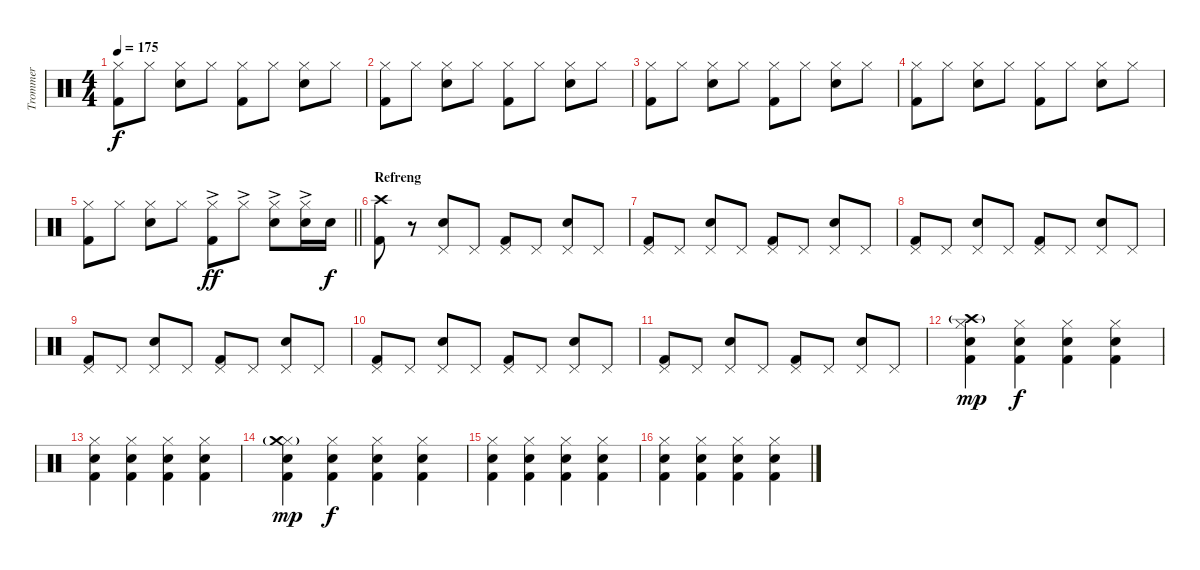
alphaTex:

\track ("Trommer" "Trommer") {instrument percussion}
\staff {score}
\articulation defaults
\ts (4 4)
\tempo 175
\clef neutral
\ks c
("Hi-Hat (closed)" "Kick (hit) 2").8{dy f} "Hi-Hat (closed)".8 ("Hi-Hat (closed)" "Electric Snare (hit)").8 "Hi-Hat (closed)".8 ("Hi-Hat (closed)" "Kick (hit) 2").8 "Hi-Hat (closed)".8 ("Hi-Hat (closed)" "Electric Snare (hit)").8 "Hi-Hat (closed)".8 |
("Hi-Hat (closed)" "Kick (hit) 2").8 "Hi-Hat (closed)".8 ("Hi-Hat (closed)" "Electric Snare (hit)").8 "Hi-Hat (closed)".8 ("Hi-Hat (closed)" "Kick (hit) 2").8 "Hi-Hat (closed)".8 ("Hi-Hat (closed)" "Electric Snare (hit)").8 "Hi-Hat (closed)".8 |
("Hi-Hat (closed)" "Kick (hit) 2").8 "Hi-Hat (closed)".8 ("Hi-Hat (closed)" "Electric Snare (hit)").8 "Hi-Hat (closed)".8 ("Hi-Hat (closed)" "Kick (hit) 2").8 "Hi-Hat (closed)".8 ("Hi-Hat (closed)" "Electric Snare (hit)").8 "Hi-Hat (closed)".8 |
("Hi-Hat (closed)" "Kick (hit) 2").8 "Hi-Hat (closed)".8 ("Hi-Hat (closed)" "Electric Snare (hit)").8 "Hi-Hat (closed)".8 ("Hi-Hat (closed)" "Kick (hit) 2").8 "Hi-Hat (closed)".8 ("Hi-Hat (closed)" "Electric Snare (hit)").8 "Hi-Hat (closed)".8 |
\barLineRight lightlight
("Hi-Hat (closed)" "Kick (hit) 2").8 "Hi-Hat (closed)".8 ("Hi-Hat (closed)" "Electric Snare (hit)").8 "Hi-Hat (closed)".8 ("Hi-Hat (closed)"{ac} "Kick (hit) 2").8{dy ff} "Hi-Hat (closed)"{ac}.8 ("Hi-Hat (closed)"{ac} "Electric Snare (hit)").8 ("Hi-Hat (closed)"{ac} "Electric Snare (hit)").16 "Electric Snare (hit)".16{dy f} |
\section ("" "Refreng")
("Crash high (hit)" "Kick (hit) 2").8 r.8 ("Pedal Hi-Hat (hit)" "Electric Snare (hit)").8 "Pedal Hi-Hat (hit)".8 ("Pedal Hi-Hat (hit)" "Kick (hit) 2").8 "Pedal Hi-Hat (hit)".8 ("Pedal Hi-Hat (hit)" "Electric Snare (hit)").8 "Pedal Hi-Hat (hit)".8 |
("Pedal Hi-Hat (hit)" "Kick (hit) 2").8 "Pedal Hi-Hat (hit)".8 ("Pedal Hi-Hat (hit)" "Electric Snare (hit)").8 "Pedal Hi-Hat (hit)".8 ("Pedal Hi-Hat (hit)" "Kick (hit) 2").8 "Pedal Hi-Hat (hit)".8 ("Pedal Hi-Hat (hit)" "Electric Snare (hit)").8 "Pedal Hi-Hat (hit)".8 |
("Pedal Hi-Hat (hit)" "Kick (hit) 2").8 "Pedal Hi-Hat (hit)".8 ("Pedal Hi-Hat (hit)" "Electric Snare (hit)").8 "Pedal Hi-Hat (hit)".8 ("Pedal Hi-Hat (hit)" "Kick (hit) 2").8 "Pedal Hi-Hat (hit)".8 ("Pedal Hi-Hat (hit)" "Electric Snare (hit)").8 "Pedal Hi-Hat (hit)".8 |
("Pedal Hi-Hat (hit)" "Kick (hit) 2").8 "Pedal Hi-Hat (hit)".8 ("Pedal Hi-Hat (hit)" "Electric Snare (hit)").8 "Pedal Hi-Hat (hit)".8 ("Pedal Hi-Hat (hit)" "Kick (hit) 2").8 "Pedal Hi-Hat (hit)".8 ("Pedal Hi-Hat (hit)" "Electric Snare (hit)").8 "Pedal Hi-Hat (hit)".8 |
("Pedal Hi-Hat (hit)" "Kick (hit) 2").8 "Pedal Hi-Hat (hit)".8 ("Pedal Hi-Hat (hit)" "Electric Snare (hit)").8 "Pedal Hi-Hat (hit)".8 ("Pedal Hi-Hat (hit)" "Kick (hit) 2").8 "Pedal Hi-Hat (hit)".8 ("Pedal Hi-Hat (hit)" "Electric Snare (hit)").8 "Pedal Hi-Hat (hit)".8 |
("Pedal Hi-Hat (hit)" "Kick (hit) 2").8 "Pedal Hi-Hat (hit)".8 ("Pedal Hi-Hat (hit)" "Electric Snare (hit)").8 "Pedal Hi-Hat (hit)".8 ("Pedal Hi-Hat (hit)" "Kick (hit) 2").8 "Pedal Hi-Hat (hit)".8 ("Pedal Hi-Hat (hit)" "Electric Snare (hit)").8 "Pedal Hi-Hat (hit)".8 |
("Hi-Hat (closed)" "Crash high (hit)"{g} "Electric Snare (hit)" "Kick (hit) 2").4{dy mp} ("Hi-Hat (closed)" "Electric Snare (hit)" "Kick (hit) 2").4{dy f} ("Hi-Hat (closed)" "Electric Snare (hit)" "Kick (hit) 2").4 ("Hi-Hat (closed)" "Electric Snare (hit)" "Kick (hit) 2").4 |
("Hi-Hat (closed)" "Electric Snare (hit)" "Kick (hit) 2").4 ("Hi-Hat (closed)" "Electric Snare (hit)" "Kick (hit) 2").4 ("Hi-Hat (closed)" "Electric Snare (hit)" "Kick (hit) 2").4 ("Hi-Hat (closed)" "Electric Snare (hit)" "Kick (hit) 2").4 |
("Hi-Hat (closed)" "Crash medium (hit)"{g} "Electric Snare (hit)" "Kick (hit) 2").4{dy mp} ("Hi-Hat (closed)" "Electric Snare (hit)" "Kick (hit) 2").4{dy f} ("Hi-Hat (closed)" "Electric Snare (hit)" "Kick (hit) 2").4 ("Hi-Hat (closed)" "Electric Snare (hit)" "Kick (hit) 2").4 |
("Hi-Hat (closed)" "Electric Snare (hit)" "Kick (hit) 2").4 ("Hi-Hat (closed)" "Electric Snare (hit)" "Kick (hit) 2").4 ("Hi-Hat (closed)" "Electric Snare (hit)" "Kick (hit) 2").4 ("Hi-Hat (closed)" "Electric Snare (hit)" "Kick (hit) 2").4 |
("Hi-Hat (closed)" "Electric Snare (hit)" "Kick (hit) 2").4 ("Hi-Hat (closed)" "Electric Snare (hit)" "Kick (hit) 2").4 ("Hi-Hat (closed)" "Electric Snare (hit)" "Kick (hit) 2").4 ("Hi-Hat (closed)" "Electric Snare (hit)" "Kick (hit) 2").4
